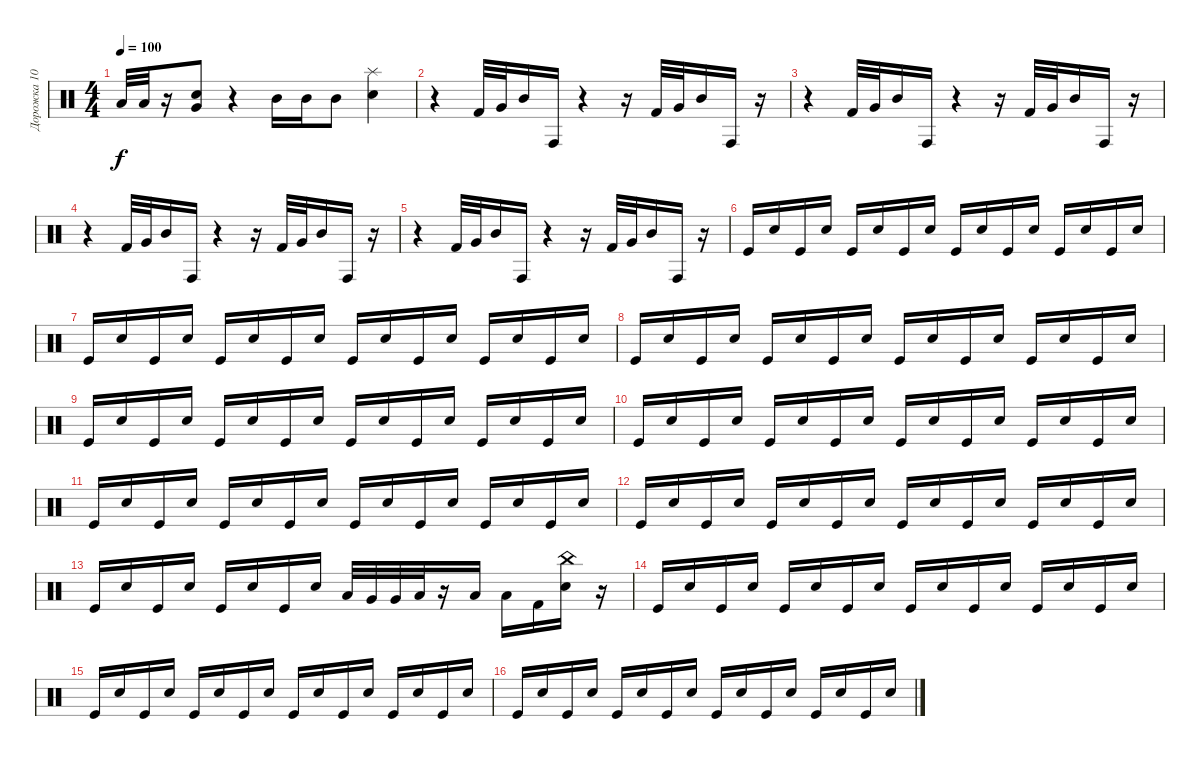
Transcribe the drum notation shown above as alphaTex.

\track ("Дорожка 10" "Дорожка 10") {instrument percussion}
\staff {score}
\articulation defaults
\ts (4 4)
\tempo 100
\clef neutral
\ks c "Low Tom (hit)".32{dy f} "Low Tom (hit)".32
r.16 ("Snare (hit) 2" "Very Low Tom (hit)").8 r.4 "Mid Tom (hit)".16 "Mid Tom (hit)".16 "Mid Tom (hit)".8 ("Splash (hit)" "Electric Snare (hit)").4 |
r.4 "Kick (hit) 2".32 "Very Low Tom (hit)".32 "Mid Tom (hit)".16 "Conga high (hit)".16 r.4 r.16 "Kick (hit) 2".32 "Very Low Tom (hit)".32 "Mid Tom (hit)".16 "Conga high (hit)".16 r.16 |
r.4 "Kick (hit) 2".32 "Very Low Tom (hit)".32 "Mid Tom (hit)".16 "Conga high (hit)".16 r.4 r.16 "Kick (hit) 2".32 "Very Low Tom (hit)".32 "Mid Tom (hit)".16 "Conga high (hit)".16 r.16 |
r.4 "Kick (hit) 2".32 "Very Low Tom (hit)".32 "Mid Tom (hit)".16 "Conga high (hit)".16 r.4 r.16 "Kick (hit) 2".32 "Very Low Tom (hit)".32 "Mid Tom (hit)".16 "Conga high (hit)".16 r.16 |
r.4 "Kick (hit) 2".32 "Very Low Tom (hit)".32 "Mid Tom (hit)".16 "Conga high (hit)".16 r.4 r.16 "Kick (hit) 2".32 "Very Low Tom (hit)".32 "Mid Tom (hit)".16 "Conga high (hit)".16 r.16 |
"Kick (hit)".16 "Snare (hit) 2".16 "Kick (hit)".16 "Electric Snare (hit)".16 "Kick (hit)".16 "Snare (hit) 2".16 "Kick (hit)".16 "Electric Snare (hit)".16 "Kick (hit)".16 "Snare (hit) 2".16 "Kick (hit)".16 "Electric Snare (hit)".16 "Kick (hit)".16 "Snare (hit) 2".16 "Kick (hit)".16 "Electric Snare (hit)".16 |
"Kick (hit)".16 "Snare (hit) 2".16 "Kick (hit)".16 "Electric Snare (hit)".16 "Kick (hit)".16 "Snare (hit) 2".16 "Kick (hit)".16 "Electric Snare (hit)".16 "Kick (hit)".16 "Snare (hit) 2".16 "Kick (hit)".16 "Electric Snare (hit)".16 "Kick (hit)".16 "Snare (hit) 2".16 "Kick (hit)".16 "Electric Snare (hit)".16 |
"Kick (hit)".16 "Snare (hit) 2".16 "Kick (hit)".16 "Electric Snare (hit)".16 "Kick (hit)".16 "Snare (hit) 2".16 "Kick (hit)".16 "Electric Snare (hit)".16 "Kick (hit)".16 "Snare (hit) 2".16 "Kick (hit)".16 "Electric Snare (hit)".16 "Kick (hit)".16 "Snare (hit) 2".16 "Kick (hit)".16 "Electric Snare (hit)".16 |
"Kick (hit)".16 "Snare (hit) 2".16 "Kick (hit)".16 "Electric Snare (hit)".16 "Kick (hit)".16 "Snare (hit) 2".16 "Kick (hit)".16 "Electric Snare (hit)".16 "Kick (hit)".16 "Snare (hit) 2".16 "Kick (hit)".16 "Electric Snare (hit)".16 "Kick (hit)".16 "Snare (hit) 2".16 "Kick (hit)".16 "Electric Snare (hit)".16 |
"Kick (hit)".16 "Snare (hit) 2".16 "Kick (hit)".16 "Electric Snare (hit)".16 "Kick (hit)".16 "Snare (hit) 2".16 "Kick (hit)".16 "Electric Snare (hit)".16 "Kick (hit)".16 "Snare (hit) 2".16 "Kick (hit)".16 "Electric Snare (hit)".16 "Kick (hit)".16 "Snare (hit) 2".16 "Kick (hit)".16 "Electric Snare (hit)".16 |
"Kick (hit)".16 "Snare (hit) 2".16 "Kick (hit)".16 "Electric Snare (hit)".16 "Kick (hit)".16 "Snare (hit) 2".16 "Kick (hit)".16 "Electric Snare (hit)".16 "Kick (hit)".16 "Snare (hit) 2".16 "Kick (hit)".16 "Electric Snare (hit)".16 "Kick (hit)".16 "Snare (hit) 2".16 "Kick (hit)".16 "Electric Snare (hit)".16 |
"Kick (hit)".16 "Snare (hit) 2".16 "Kick (hit)".16 "Electric Snare (hit)".16 "Kick (hit)".16 "Snare (hit) 2".16 "Kick (hit)".16 "Electric Snare (hit)".16 "Kick (hit)".16 "Snare (hit) 2".16 "Kick (hit)".16 "Electric Snare (hit)".16 "Kick (hit)".16 "Snare (hit) 2".16 "Kick (hit)".16 "Electric Snare (hit)".16 |
"Kick (hit)".16 "Snare (hit) 2".16 "Kick (hit)".16 "Electric Snare (hit)".16 "Kick (hit)".16 "Snare (hit) 2".16 "Kick (hit)".16 "Electric Snare (hit)".16 "Low Tom (hit)".32 "Very Low Tom (hit)".32 "Very Low Tom (hit)".32 "Low Tom (hit)".32 r.16 "Low Floor Tom (hit)".16 "Low Floor Tom (hit)".16 "Kick (hit) 2".16 ("Electric Snare (hit)" "China (hit)").16 r.16 |
"Kick (hit)".16 "Snare (hit) 2".16 "Kick (hit)".16 "Electric Snare (hit)".16 "Kick (hit)".16 "Snare (hit) 2".16 "Kick (hit)".16 "Electric Snare (hit)".16 "Kick (hit)".16 "Snare (hit) 2".16 "Kick (hit)".16 "Electric Snare (hit)".16 "Kick (hit)".16 "Snare (hit) 2".16 "Kick (hit)".16 "Electric Snare (hit)".16 |
"Kick (hit)".16 "Snare (hit) 2".16 "Kick (hit)".16 "Electric Snare (hit)".16 "Kick (hit)".16 "Snare (hit) 2".16 "Kick (hit)".16 "Electric Snare (hit)".16 "Kick (hit)".16 "Snare (hit) 2".16 "Kick (hit)".16 "Electric Snare (hit)".16 "Kick (hit)".16 "Snare (hit) 2".16 "Kick (hit)".16 "Electric Snare (hit)".16 |
"Kick (hit)".16 "Snare (hit) 2".16 "Kick (hit)".16 "Electric Snare (hit)".16 "Kick (hit)".16 "Snare (hit) 2".16 "Kick (hit)".16 "Electric Snare (hit)".16 "Kick (hit)".16 "Snare (hit) 2".16 "Kick (hit)".16 "Electric Snare (hit)".16 "Kick (hit)".16 "Snare (hit) 2".16 "Kick (hit)".16 "Electric Snare (hit)".16
